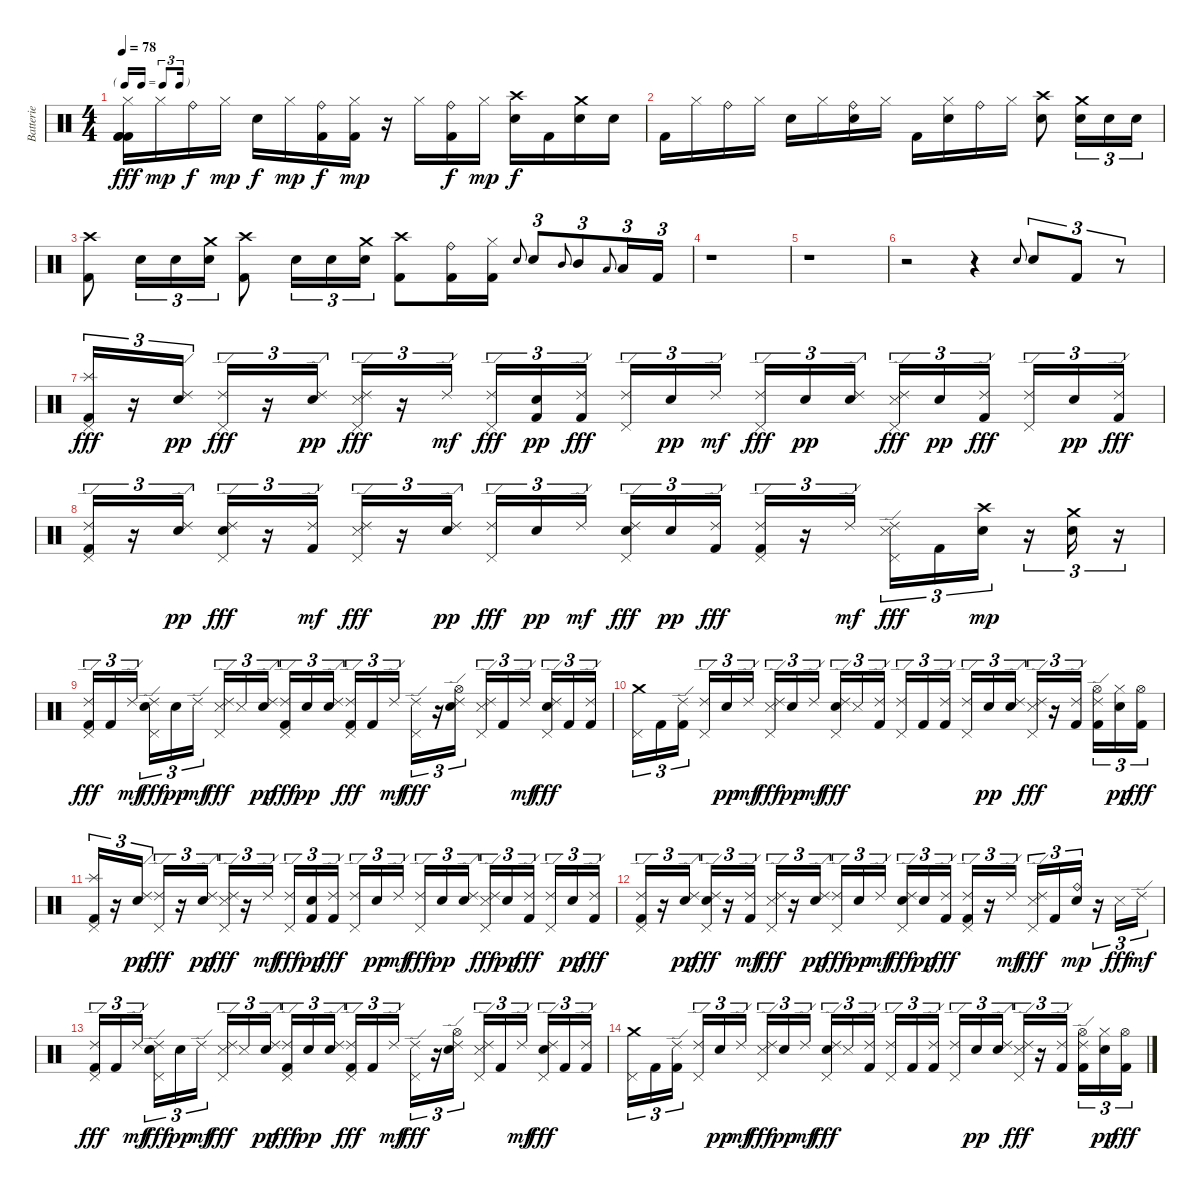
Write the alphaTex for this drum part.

\track ("Batterie" "Batterie") {instrument percussion}
\staff {score}
\articulation defaults
\ts (4 4)
\tf triplet16th
\tempo 78
\clef neutral
\ks c
("Hi-Hat (closed)" "Kick (hit) 2" "Kick (hit) 2" "Kick (hit) 2").16{dy fff} "Hi-Hat (closed)".16{dy mp} "Ride (bell)".16{dy f} "Hi-Hat (closed)".16{dy mp} "Electric Snare (hit)".16{dy f} "Hi-Hat (closed)".16{dy mp} ("Ride (bell)" "Kick (hit) 2").16{dy f} ("Hi-Hat (closed)" "Kick (hit) 2").16{dy mp} r.16 "Hi-Hat (closed)".16 ("Ride (bell)" "Kick (hit) 2").16{dy f} "Hi-Hat (closed)".16{dy mp} ("Crash high (hit)" "Electric Snare (hit)").16{dy f} "Kick (hit) 2".16 ("Crash medium (hit)" "Electric Snare (hit)").16 "Electric Snare (hit)".16 |
"Kick (hit) 2".16 "Hi-Hat (closed)".16 "Ride (bell)".16 "Hi-Hat (closed)".16 "Electric Snare (hit)".16 "Hi-Hat (closed)".16 ("Ride (bell)" "Electric Snare (hit)").16 "Hi-Hat (closed)".16 "Kick (hit) 2".16 ("Hi-Hat (closed)" "Electric Snare (hit)").16 "Ride (bell)".16 "Hi-Hat (closed)".16 ("Crash high (hit)" "Electric Snare (hit)").8 ("Crash medium (hit)" "Electric Snare (hit)").16{tu (3 2)} "Electric Snare (hit)".16{tu (3 2)} "Electric Snare (hit)".16{tu (3 2)} |
("Crash high (hit)" "Kick (hit) 2").8 "Electric Snare (hit)".16{tu (3 2)} "Electric Snare (hit)".16{tu (3 2)} ("Crash medium (hit)" "Electric Snare (hit)").16{tu (3 2)} ("Crash high (hit)" "Kick (hit) 2").8 "Electric Snare (hit)".16{tu (3 2)} "Electric Snare (hit)".16{tu (3 2)} ("Crash medium (hit)" "Electric Snare (hit)").16{tu (3 2)} ("Crash high (hit)" "Kick (hit) 2").8 ("Ride (bell)" "Kick (hit) 2").16 ("Hi-Hat (closed)" "Kick (hit) 2").16 "Electric Snare (hit)".8{gr onbeat} "Electric Snare (hit)".8{tu (3 2)} "Mid Tom (hit)".8{gr onbeat} "Mid Tom (hit)".8{tu (3 2)} "Low Tom (hit)".8{gr onbeat} "Low Tom (hit)".16{tu (3 2)} "Kick (hit) 2".16{tu (3 2)} |
r.1 |
r.1 |
r.2 r.4 "Electric Snare (hit)".8{gr onbeat} "Electric Snare (hit)".8{tu (3 2)} "Kick (hit) 2".8{tu (3 2)} r.8{tu (3 2)} |
("Splash (hit)" "Kick (hit) 2" "Pedal Hi-Hat (hit)").16{tu (3 2) dy fff} r.16{tu (3 2)} ("Ride (edge) 2" "Electric Snare (hit)").16{tu (3 2) dy pp} ("Ride (edge) 2" "Pedal Hi-Hat (hit)").16{tu (3 2) dy fff} r.16{tu (3 2)} ("Ride (edge) 2" "Electric Snare (hit)").16{tu (3 2) dy pp} ("Ride (edge) 2" "Snare (side stick) 3" "Pedal Hi-Hat (hit)").16{tu (3 2) dy fff} r.16{tu (3 2)} "Ride (edge) 2".16{tu (3 2) dy mf beam splitsecondary} ("Ride (edge) 2" "Pedal Hi-Hat (hit)").16{tu (3 2) dy fff} ("Kick (hit) 2" "Electric Snare (hit)").16{tu (3 2) dy pp} ("Ride (edge) 2" "Kick (hit) 2").16{tu (3 2) dy fff} ("Ride (edge) 2" "Pedal Hi-Hat (hit)").16{tu (3 2)} "Electric Snare (hit)".16{tu (3 2) dy pp} "Ride (edge) 2".16{tu (3 2) dy mf beam splitsecondary} ("Ride (edge) 2" "Pedal Hi-Hat (hit)").16{tu (3 2) dy fff} "Electric Snare (hit)".16{tu (3 2) dy pp} ("Ride (edge) 2" "Electric Snare (hit)").16{tu (3 2)} ("Ride (edge) 2" "Snare (side stick) 3" "Pedal Hi-Hat (hit)").16{tu (3 2) dy fff} "Electric Snare (hit)".16{tu (3 2) dy pp} ("Ride (edge) 2" "Kick (hit) 2").16{tu (3 2) dy fff beam splitsecondary} ("Ride (edge) 2" "Pedal Hi-Hat (hit)").16{tu (3 2)} "Electric Snare (hit)".16{tu (3 2) dy pp} ("Ride (edge) 2" "Kick (hit) 2").16{tu (3 2) dy fff} |
("Ride (edge) 2" "Kick (hit) 2" "Pedal Hi-Hat (hit)").16{tu (3 2)} r.16{tu (3 2)} ("Ride (edge) 2" "Electric Snare (hit)").16{tu (3 2) dy pp} ("Ride (edge) 2" "Electric Snare (hit)" "Pedal Hi-Hat (hit)").16{tu (3 2) dy fff} r.16{tu (3 2)} ("Ride (edge) 2" "Kick (hit) 2").16{tu (3 2) dy mf} ("Ride (edge) 2" "Snare (side stick) 3" "Pedal Hi-Hat (hit)").16{tu (3 2) dy fff} r.16{tu (3 2)} ("Ride (edge) 2" "Electric Snare (hit)").16{tu (3 2) dy pp beam splitsecondary} ("Ride (edge) 2" "Pedal Hi-Hat (hit)").16{tu (3 2) dy fff} "Electric Snare (hit)".16{tu (3 2) dy pp} "Ride (edge) 2".16{tu (3 2) dy mf} ("Ride (edge) 2" "Electric Snare (hit)" "Pedal Hi-Hat (hit)").16{tu (3 2) dy fff} "Electric Snare (hit)".16{tu (3 2) dy pp} ("Ride (edge) 2" "Kick (hit) 2").16{tu (3 2) dy fff beam splitsecondary} ("Ride (edge) 2" "Kick (hit) 2" "Pedal Hi-Hat (hit)").16{tu (3 2)} r.16{tu (3 2)} "Ride (edge) 2".16{tu (3 2) dy mf} ("Ride (edge) 2" "Snare (side stick) 3" "Pedal Hi-Hat (hit)").16{tu (3 2) dy fff} "Kick (hit) 2".16{tu (3 2)} ("Crash high (hit)" "Electric Snare (hit)").16{tu (3 2) dy mp} r.16{tu (3 2)} ("Crash medium (hit)" "Electric Snare (hit)").16{tu (3 2)} r.16{tu (3 2)} |
("Ride (edge) 2" "Kick (hit) 2" "Pedal Hi-Hat (hit)").16{tu (3 2) dy fff} "Kick (hit) 2".16{tu (3 2)} "Ride (edge) 2".16{tu (3 2) dy mf beam splitsecondary} ("Ride (edge) 2" "Electric Snare (hit)" "Pedal Hi-Hat (hit)").16{tu (3 2) dy fff} "Electric Snare (hit)".16{tu (3 2) dy pp} "Ride (edge) 2".16{tu (3 2) dy mf} ("Ride (edge) 2" "Snare (side stick) 3" "Pedal Hi-Hat (hit)").16{tu (3 2) dy fff} "Snare (side stick) 3".16{tu (3 2)} ("Ride (edge) 2" "Electric Snare (hit)").16{tu (3 2) dy pp beam splitsecondary} ("Ride (edge) 2" "Kick (hit) 2" "Pedal Hi-Hat (hit)").16{tu (3 2) dy fff} "Electric Snare (hit)".16{tu (3 2) dy pp} ("Ride (edge) 2" "Electric Snare (hit)").16{tu (3 2)} ("Ride (edge) 2" "Kick (hit) 2" "Pedal Hi-Hat (hit)").16{tu (3 2) dy fff} "Kick (hit) 2".16{tu (3 2)} "Ride (edge) 2".16{tu (3 2) dy mf beam splitsecondary} ("Ride (edge) 2" "Pedal Hi-Hat (hit)").16{tu (3 2) dy fff} r.16{tu (3 2)} ("Ride (edge) 2" "Electric Snare (hit)" "Hi-Hat (open)").16{tu (3 2)} ("Ride (edge) 2" "Snare (side stick) 3" "Pedal Hi-Hat (hit)").16{tu (3 2)} "Kick (hit) 2".16{tu (3 2)} "Ride (edge) 2".16{tu (3 2) dy mf beam splitsecondary} ("Ride (edge) 2" "Electric Snare (hit)" "Pedal Hi-Hat (hit)").16{tu (3 2) dy fff} "Kick (hit) 2".16{tu (3 2)} ("Ride (edge) 2" "Kick (hit) 2").16{tu (3 2)} |
("Crash medium (hit)" "Pedal Hi-Hat (hit)").16{tu (3 2)} "Kick (hit) 2".16{tu (3 2)} ("Ride (edge) 2" "Kick (hit) 2").16{tu (3 2) beam splitsecondary} ("Ride (edge) 2" "Pedal Hi-Hat (hit)").16{tu (3 2)} "Electric Snare (hit)".16{tu (3 2) dy pp} "Ride (edge) 2".16{tu (3 2) dy mf} ("Ride (edge) 2" "Snare (side stick) 3" "Pedal Hi-Hat (hit)").16{tu (3 2) dy fff} "Electric Snare (hit)".16{tu (3 2) dy pp} "Ride (edge) 2".16{tu (3 2) dy mf beam splitsecondary} ("Ride (edge) 2" "Electric Snare (hit)" "Pedal Hi-Hat (hit)").16{tu (3 2) dy fff} "Snare (side stick) 3".16{tu (3 2)} ("Ride (edge) 2" "Kick (hit) 2").16{tu (3 2)} ("Ride (edge) 2" "Pedal Hi-Hat (hit)").16{tu (3 2)} "Kick (hit) 2".16{tu (3 2)} ("Ride (edge) 2" "Kick (hit) 2").16{tu (3 2) beam splitsecondary} ("Ride (edge) 2" "Pedal Hi-Hat (hit)").16{tu (3 2)} "Electric Snare (hit)".16{tu (3 2) dy pp} ("Ride (edge) 2" "Electric Snare (hit)").16{tu (3 2)} ("Ride (edge) 2" "Snare (side stick) 3" "Pedal Hi-Hat (hit)").16{tu (3 2) dy fff} r.16{tu (3 2)} ("Ride (edge) 2" "Kick (hit) 2").16{tu (3 2) beam splitsecondary} ("Ride (edge) 2" "Kick (hit) 2" "Hi-Hat (open)").16{tu (3 2)} ("Hi-Hat (closed)" "Electric Snare (hit)").16{tu (3 2) dy pp} ("Hi-Hat (open)" "Kick (hit) 2").16{tu (3 2) dy fff} |
("Splash (hit)" "Kick (hit) 2" "Pedal Hi-Hat (hit)").16{tu (3 2)} r.16{tu (3 2)} ("Ride (edge) 2" "Electric Snare (hit)").16{tu (3 2) dy pp} ("Ride (edge) 2" "Pedal Hi-Hat (hit)").16{tu (3 2) dy fff} r.16{tu (3 2)} ("Ride (edge) 2" "Electric Snare (hit)").16{tu (3 2) dy pp} ("Ride (edge) 2" "Snare (side stick) 3" "Pedal Hi-Hat (hit)").16{tu (3 2) dy fff} r.16{tu (3 2)} "Ride (edge) 2".16{tu (3 2) dy mf beam splitsecondary} ("Ride (edge) 2" "Pedal Hi-Hat (hit)").16{tu (3 2) dy fff} ("Kick (hit) 2" "Electric Snare (hit)").16{tu (3 2) dy pp} ("Ride (edge) 2" "Kick (hit) 2").16{tu (3 2) dy fff} ("Ride (edge) 2" "Pedal Hi-Hat (hit)").16{tu (3 2)} "Electric Snare (hit)".16{tu (3 2) dy pp} "Ride (edge) 2".16{tu (3 2) dy mf beam splitsecondary} ("Ride (edge) 2" "Pedal Hi-Hat (hit)").16{tu (3 2) dy fff} "Electric Snare (hit)".16{tu (3 2) dy pp} ("Ride (edge) 2" "Electric Snare (hit)").16{tu (3 2)} ("Ride (edge) 2" "Snare (side stick) 3" "Pedal Hi-Hat (hit)").16{tu (3 2) dy fff} "Electric Snare (hit)".16{tu (3 2) dy pp} ("Ride (edge) 2" "Kick (hit) 2").16{tu (3 2) dy fff beam splitsecondary} ("Ride (edge) 2" "Pedal Hi-Hat (hit)").16{tu (3 2)} "Electric Snare (hit)".16{tu (3 2) dy pp} ("Ride (edge) 2" "Kick (hit) 2").16{tu (3 2) dy fff} |
("Ride (edge) 2" "Kick (hit) 2" "Pedal Hi-Hat (hit)").16{tu (3 2)} r.16{tu (3 2)} ("Ride (edge) 2" "Electric Snare (hit)").16{tu (3 2) dy pp} ("Ride (edge) 2" "Electric Snare (hit)" "Pedal Hi-Hat (hit)").16{tu (3 2) dy fff} r.16{tu (3 2)} ("Ride (edge) 2" "Kick (hit) 2").16{tu (3 2) dy mf} ("Ride (edge) 2" "Snare (side stick) 3" "Pedal Hi-Hat (hit)").16{tu (3 2) dy fff} r.16{tu (3 2)} ("Ride (edge) 2" "Electric Snare (hit)").16{tu (3 2) dy pp beam splitsecondary} ("Ride (edge) 2" "Pedal Hi-Hat (hit)").16{tu (3 2) dy fff} "Electric Snare (hit)".16{tu (3 2) dy pp} "Ride (edge) 2".16{tu (3 2) dy mf} ("Ride (edge) 2" "Electric Snare (hit)" "Pedal Hi-Hat (hit)").16{tu (3 2) dy fff} "Electric Snare (hit)".16{tu (3 2) dy pp} ("Ride (edge) 2" "Kick (hit) 2").16{tu (3 2) dy fff beam splitsecondary} ("Ride (edge) 2" "Kick (hit) 2" "Pedal Hi-Hat (hit)").16{tu (3 2)} r.16{tu (3 2)} "Ride (edge) 2".16{tu (3 2) dy mf} ("Ride (edge) 2" "Snare (side stick) 3" "Pedal Hi-Hat (hit)").16{tu (3 2) dy fff} "Kick (hit) 2".16{tu (3 2)} ("Ride (bell)" "Electric Snare (hit)").16{tu (3 2) dy mp} r.16{tu (3 2)} "Snare (side stick) 3".16{tu (3 2) dy fff} "Ride (edge) 2".16{tu (3 2) dy mf} |
("Ride (edge) 2" "Kick (hit) 2" "Pedal Hi-Hat (hit)").16{tu (3 2) dy fff} "Kick (hit) 2".16{tu (3 2)} "Ride (edge) 2".16{tu (3 2) dy mf beam splitsecondary} ("Ride (edge) 2" "Electric Snare (hit)" "Pedal Hi-Hat (hit)").16{tu (3 2) dy fff} "Electric Snare (hit)".16{tu (3 2) dy pp} "Ride (edge) 2".16{tu (3 2) dy mf} ("Ride (edge) 2" "Snare (side stick) 3" "Pedal Hi-Hat (hit)").16{tu (3 2) dy fff} "Snare (side stick) 3".16{tu (3 2)} ("Ride (edge) 2" "Electric Snare (hit)").16{tu (3 2) dy pp beam splitsecondary} ("Ride (edge) 2" "Kick (hit) 2" "Pedal Hi-Hat (hit)").16{tu (3 2) dy fff} "Electric Snare (hit)".16{tu (3 2) dy pp} ("Ride (edge) 2" "Electric Snare (hit)").16{tu (3 2)} ("Ride (edge) 2" "Kick (hit) 2" "Pedal Hi-Hat (hit)").16{tu (3 2) dy fff} "Kick (hit) 2".16{tu (3 2)} "Ride (edge) 2".16{tu (3 2) dy mf beam splitsecondary} ("Ride (edge) 2" "Pedal Hi-Hat (hit)").16{tu (3 2) dy fff} r.16{tu (3 2)} ("Ride (edge) 2" "Electric Snare (hit)" "Hi-Hat (open)").16{tu (3 2)} ("Ride (edge) 2" "Snare (side stick) 3" "Pedal Hi-Hat (hit)").16{tu (3 2)} "Kick (hit) 2".16{tu (3 2)} "Ride (edge) 2".16{tu (3 2) dy mf beam splitsecondary} ("Ride (edge) 2" "Electric Snare (hit)" "Pedal Hi-Hat (hit)").16{tu (3 2) dy fff} "Kick (hit) 2".16{tu (3 2)} ("Ride (edge) 2" "Kick (hit) 2").16{tu (3 2)} |
("Crash medium (hit)" "Pedal Hi-Hat (hit)").16{tu (3 2)} "Kick (hit) 2".16{tu (3 2)} ("Ride (edge) 2" "Kick (hit) 2").16{tu (3 2) beam splitsecondary} ("Ride (edge) 2" "Pedal Hi-Hat (hit)").16{tu (3 2)} "Electric Snare (hit)".16{tu (3 2) dy pp} "Ride (edge) 2".16{tu (3 2) dy mf} ("Ride (edge) 2" "Snare (side stick) 3" "Pedal Hi-Hat (hit)").16{tu (3 2) dy fff} "Electric Snare (hit)".16{tu (3 2) dy pp} "Ride (edge) 2".16{tu (3 2) dy mf beam splitsecondary} ("Ride (edge) 2" "Electric Snare (hit)" "Pedal Hi-Hat (hit)").16{tu (3 2) dy fff} "Snare (side stick) 3".16{tu (3 2)} ("Ride (edge) 2" "Kick (hit) 2").16{tu (3 2)} ("Ride (edge) 2" "Pedal Hi-Hat (hit)").16{tu (3 2)} "Kick (hit) 2".16{tu (3 2)} ("Ride (edge) 2" "Kick (hit) 2").16{tu (3 2) beam splitsecondary} ("Ride (edge) 2" "Pedal Hi-Hat (hit)").16{tu (3 2)} "Electric Snare (hit)".16{tu (3 2) dy pp} ("Ride (edge) 2" "Electric Snare (hit)").16{tu (3 2)} ("Ride (edge) 2" "Snare (side stick) 3" "Pedal Hi-Hat (hit)").16{tu (3 2) dy fff} r.16{tu (3 2)} ("Ride (edge) 2" "Kick (hit) 2").16{tu (3 2) beam splitsecondary} ("Ride (edge) 2" "Kick (hit) 2" "Hi-Hat (open)").16{tu (3 2)} ("Hi-Hat (closed)" "Electric Snare (hit)").16{tu (3 2) dy pp} ("Hi-Hat (open)" "Kick (hit) 2").16{tu (3 2) dy fff}
